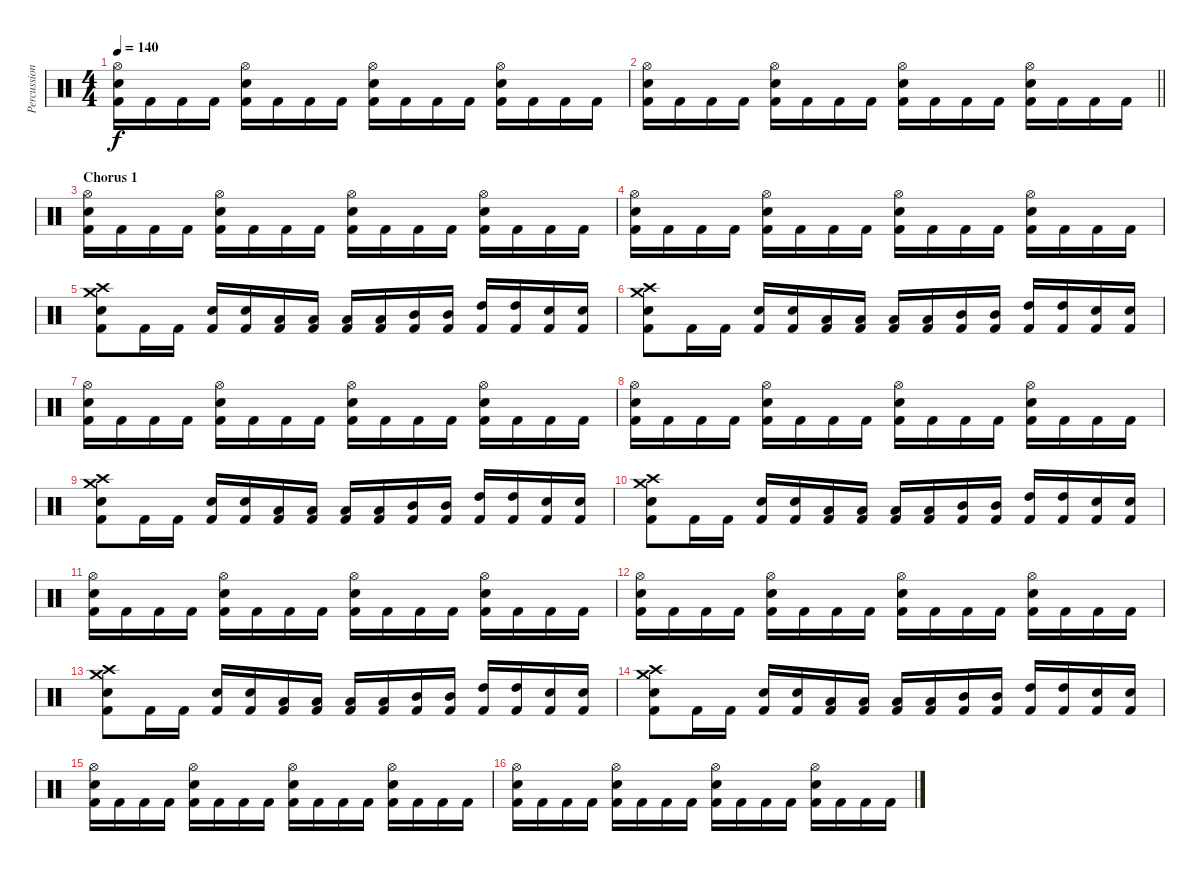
\track ("Percussioni" "Percussion") {instrument percussion}
\staff {score}
\articulation defaults
\ts (4 4)
\tempo 140
\clef neutral
\ks c
("Hi-Hat (open)" "Electric Snare (hit)" "Kick (hit) 2").16{dy f} "Kick (hit) 2".16 "Kick (hit) 2".16 "Kick (hit) 2".16 ("Hi-Hat (open)" "Electric Snare (hit)" "Kick (hit) 2").16 "Kick (hit) 2".16 "Kick (hit) 2".16 "Kick (hit) 2".16 ("Hi-Hat (open)" "Electric Snare (hit)" "Kick (hit) 2").16 "Kick (hit) 2".16 "Kick (hit) 2".16 "Kick (hit) 2".16 ("Hi-Hat (open)" "Electric Snare (hit)" "Kick (hit) 2").16 "Kick (hit) 2".16 "Kick (hit) 2".16 "Kick (hit) 2".16 |
\barLineRight lightlight
("Hi-Hat (open)" "Electric Snare (hit)" "Kick (hit) 2").16 "Kick (hit) 2".16 "Kick (hit) 2".16 "Kick (hit) 2".16 ("Hi-Hat (open)" "Electric Snare (hit)" "Kick (hit) 2").16 "Kick (hit) 2".16 "Kick (hit) 2".16 "Kick (hit) 2".16 ("Hi-Hat (open)" "Electric Snare (hit)" "Kick (hit) 2").16 "Kick (hit) 2".16 "Kick (hit) 2".16 "Kick (hit) 2".16 ("Hi-Hat (open)" "Electric Snare (hit)" "Kick (hit) 2").16 "Kick (hit) 2".16 "Kick (hit) 2".16 "Kick (hit) 2".16 |
\section ("" "Chorus 1")
("Hi-Hat (open)" "Electric Snare (hit)" "Kick (hit) 2").16 "Kick (hit) 2".16 "Kick (hit) 2".16 "Kick (hit) 2".16 ("Hi-Hat (open)" "Electric Snare (hit)" "Kick (hit) 2").16 "Kick (hit) 2".16 "Kick (hit) 2".16 "Kick (hit) 2".16 ("Hi-Hat (open)" "Electric Snare (hit)" "Kick (hit) 2").16 "Kick (hit) 2".16 "Kick (hit) 2".16 "Kick (hit) 2".16 ("Hi-Hat (open)" "Electric Snare (hit)" "Kick (hit) 2").16 "Kick (hit) 2".16 "Kick (hit) 2".16 "Kick (hit) 2".16 |
("Hi-Hat (open)" "Electric Snare (hit)" "Kick (hit) 2").16 "Kick (hit) 2".16 "Kick (hit) 2".16 "Kick (hit) 2".16 ("Hi-Hat (open)" "Electric Snare (hit)" "Kick (hit) 2").16 "Kick (hit) 2".16 "Kick (hit) 2".16 "Kick (hit) 2".16 ("Hi-Hat (open)" "Electric Snare (hit)" "Kick (hit) 2").16 "Kick (hit) 2".16 "Kick (hit) 2".16 "Kick (hit) 2".16 ("Hi-Hat (open)" "Electric Snare (hit)" "Kick (hit) 2").16 "Kick (hit) 2".16 "Kick (hit) 2".16 "Kick (hit) 2".16 |
("Crash high (hit)" "Crash medium (hit)" "Electric Snare (hit)" "Kick (hit) 2").8 "Kick (hit) 2".16 "Kick (hit) 2".16 ("Electric Snare (hit)" "Kick (hit) 2").16 ("Electric Snare (hit)" "Kick (hit) 2").16 ("Low Floor Tom (hit)" "Kick (hit) 2").16 ("Low Floor Tom (hit)" "Kick (hit) 2").16 ("Low Tom (hit)" "Kick (hit) 2").16 ("Low Tom (hit)" "Kick (hit) 2").16 ("Mid Tom (hit)" "Kick (hit) 2").16 ("Mid Tom (hit)" "Kick (hit) 2").16 ("High Tom (hit)" "Kick (hit) 2").16 ("High Tom (hit)" "Kick (hit) 2").16 ("Electric Snare (hit)" "Kick (hit) 2").16 ("Electric Snare (hit)" "Kick (hit) 2").16 |
("Crash high (hit)" "Crash medium (hit)" "Electric Snare (hit)" "Kick (hit) 2").8 "Kick (hit) 2".16 "Kick (hit) 2".16 ("Electric Snare (hit)" "Kick (hit) 2").16 ("Electric Snare (hit)" "Kick (hit) 2").16 ("Low Floor Tom (hit)" "Kick (hit) 2").16 ("Low Floor Tom (hit)" "Kick (hit) 2").16 ("Low Tom (hit)" "Kick (hit) 2").16 ("Low Tom (hit)" "Kick (hit) 2").16 ("Mid Tom (hit)" "Kick (hit) 2").16 ("Mid Tom (hit)" "Kick (hit) 2").16 ("High Tom (hit)" "Kick (hit) 2").16 ("High Tom (hit)" "Kick (hit) 2").16 ("Electric Snare (hit)" "Kick (hit) 2").16 ("Electric Snare (hit)" "Kick (hit) 2").16 |
("Hi-Hat (open)" "Electric Snare (hit)" "Kick (hit) 2").16 "Kick (hit) 2".16 "Kick (hit) 2".16 "Kick (hit) 2".16 ("Hi-Hat (open)" "Electric Snare (hit)" "Kick (hit) 2").16 "Kick (hit) 2".16 "Kick (hit) 2".16 "Kick (hit) 2".16 ("Hi-Hat (open)" "Electric Snare (hit)" "Kick (hit) 2").16 "Kick (hit) 2".16 "Kick (hit) 2".16 "Kick (hit) 2".16 ("Hi-Hat (open)" "Electric Snare (hit)" "Kick (hit) 2").16 "Kick (hit) 2".16 "Kick (hit) 2".16 "Kick (hit) 2".16 |
("Hi-Hat (open)" "Electric Snare (hit)" "Kick (hit) 2").16 "Kick (hit) 2".16 "Kick (hit) 2".16 "Kick (hit) 2".16 ("Hi-Hat (open)" "Electric Snare (hit)" "Kick (hit) 2").16 "Kick (hit) 2".16 "Kick (hit) 2".16 "Kick (hit) 2".16 ("Hi-Hat (open)" "Electric Snare (hit)" "Kick (hit) 2").16 "Kick (hit) 2".16 "Kick (hit) 2".16 "Kick (hit) 2".16 ("Hi-Hat (open)" "Electric Snare (hit)" "Kick (hit) 2").16 "Kick (hit) 2".16 "Kick (hit) 2".16 "Kick (hit) 2".16 |
("Crash high (hit)" "Crash medium (hit)" "Electric Snare (hit)" "Kick (hit) 2").8 "Kick (hit) 2".16 "Kick (hit) 2".16 ("Electric Snare (hit)" "Kick (hit) 2").16 ("Electric Snare (hit)" "Kick (hit) 2").16 ("Low Floor Tom (hit)" "Kick (hit) 2").16 ("Low Floor Tom (hit)" "Kick (hit) 2").16 ("Low Tom (hit)" "Kick (hit) 2").16 ("Low Tom (hit)" "Kick (hit) 2").16 ("Mid Tom (hit)" "Kick (hit) 2").16 ("Mid Tom (hit)" "Kick (hit) 2").16 ("High Tom (hit)" "Kick (hit) 2").16 ("High Tom (hit)" "Kick (hit) 2").16 ("Electric Snare (hit)" "Kick (hit) 2").16 ("Electric Snare (hit)" "Kick (hit) 2").16 |
("Crash high (hit)" "Crash medium (hit)" "Electric Snare (hit)" "Kick (hit) 2").8 "Kick (hit) 2".16 "Kick (hit) 2".16 ("Electric Snare (hit)" "Kick (hit) 2").16 ("Electric Snare (hit)" "Kick (hit) 2").16 ("Low Floor Tom (hit)" "Kick (hit) 2").16 ("Low Floor Tom (hit)" "Kick (hit) 2").16 ("Low Tom (hit)" "Kick (hit) 2").16 ("Low Tom (hit)" "Kick (hit) 2").16 ("Mid Tom (hit)" "Kick (hit) 2").16 ("Mid Tom (hit)" "Kick (hit) 2").16 ("High Tom (hit)" "Kick (hit) 2").16 ("High Tom (hit)" "Kick (hit) 2").16 ("Electric Snare (hit)" "Kick (hit) 2").16 ("Electric Snare (hit)" "Kick (hit) 2").16 |
("Hi-Hat (open)" "Electric Snare (hit)" "Kick (hit) 2").16 "Kick (hit) 2".16 "Kick (hit) 2".16 "Kick (hit) 2".16 ("Hi-Hat (open)" "Electric Snare (hit)" "Kick (hit) 2").16 "Kick (hit) 2".16 "Kick (hit) 2".16 "Kick (hit) 2".16 ("Hi-Hat (open)" "Electric Snare (hit)" "Kick (hit) 2").16 "Kick (hit) 2".16 "Kick (hit) 2".16 "Kick (hit) 2".16 ("Hi-Hat (open)" "Electric Snare (hit)" "Kick (hit) 2").16 "Kick (hit) 2".16 "Kick (hit) 2".16 "Kick (hit) 2".16 |
("Hi-Hat (open)" "Electric Snare (hit)" "Kick (hit) 2").16 "Kick (hit) 2".16 "Kick (hit) 2".16 "Kick (hit) 2".16 ("Hi-Hat (open)" "Electric Snare (hit)" "Kick (hit) 2").16 "Kick (hit) 2".16 "Kick (hit) 2".16 "Kick (hit) 2".16 ("Hi-Hat (open)" "Electric Snare (hit)" "Kick (hit) 2").16 "Kick (hit) 2".16 "Kick (hit) 2".16 "Kick (hit) 2".16 ("Hi-Hat (open)" "Electric Snare (hit)" "Kick (hit) 2").16 "Kick (hit) 2".16 "Kick (hit) 2".16 "Kick (hit) 2".16 |
("Crash high (hit)" "Crash medium (hit)" "Electric Snare (hit)" "Kick (hit) 2").8 "Kick (hit) 2".16 "Kick (hit) 2".16 ("Electric Snare (hit)" "Kick (hit) 2").16 ("Electric Snare (hit)" "Kick (hit) 2").16 ("Low Floor Tom (hit)" "Kick (hit) 2").16 ("Low Floor Tom (hit)" "Kick (hit) 2").16 ("Low Tom (hit)" "Kick (hit) 2").16 ("Low Tom (hit)" "Kick (hit) 2").16 ("Mid Tom (hit)" "Kick (hit) 2").16 ("Mid Tom (hit)" "Kick (hit) 2").16 ("High Tom (hit)" "Kick (hit) 2").16 ("High Tom (hit)" "Kick (hit) 2").16 ("Electric Snare (hit)" "Kick (hit) 2").16 ("Electric Snare (hit)" "Kick (hit) 2").16 |
("Crash high (hit)" "Crash medium (hit)" "Electric Snare (hit)" "Kick (hit) 2").8 "Kick (hit) 2".16 "Kick (hit) 2".16 ("Electric Snare (hit)" "Kick (hit) 2").16 ("Electric Snare (hit)" "Kick (hit) 2").16 ("Low Floor Tom (hit)" "Kick (hit) 2").16 ("Low Floor Tom (hit)" "Kick (hit) 2").16 ("Low Tom (hit)" "Kick (hit) 2").16 ("Low Tom (hit)" "Kick (hit) 2").16 ("Mid Tom (hit)" "Kick (hit) 2").16 ("Mid Tom (hit)" "Kick (hit) 2").16 ("High Tom (hit)" "Kick (hit) 2").16 ("High Tom (hit)" "Kick (hit) 2").16 ("Electric Snare (hit)" "Kick (hit) 2").16 ("Electric Snare (hit)" "Kick (hit) 2").16 |
("Hi-Hat (open)" "Electric Snare (hit)" "Kick (hit) 2").16 "Kick (hit) 2".16 "Kick (hit) 2".16 "Kick (hit) 2".16 ("Hi-Hat (open)" "Electric Snare (hit)" "Kick (hit) 2").16 "Kick (hit) 2".16 "Kick (hit) 2".16 "Kick (hit) 2".16 ("Hi-Hat (open)" "Electric Snare (hit)" "Kick (hit) 2").16 "Kick (hit) 2".16 "Kick (hit) 2".16 "Kick (hit) 2".16 ("Hi-Hat (open)" "Electric Snare (hit)" "Kick (hit) 2").16 "Kick (hit) 2".16 "Kick (hit) 2".16 "Kick (hit) 2".16 |
("Hi-Hat (open)" "Electric Snare (hit)" "Kick (hit) 2").16 "Kick (hit) 2".16 "Kick (hit) 2".16 "Kick (hit) 2".16 ("Hi-Hat (open)" "Electric Snare (hit)" "Kick (hit) 2").16 "Kick (hit) 2".16 "Kick (hit) 2".16 "Kick (hit) 2".16 ("Hi-Hat (open)" "Electric Snare (hit)" "Kick (hit) 2").16 "Kick (hit) 2".16 "Kick (hit) 2".16 "Kick (hit) 2".16 ("Hi-Hat (open)" "Electric Snare (hit)" "Kick (hit) 2").16 "Kick (hit) 2".16 "Kick (hit) 2".16 "Kick (hit) 2".16
